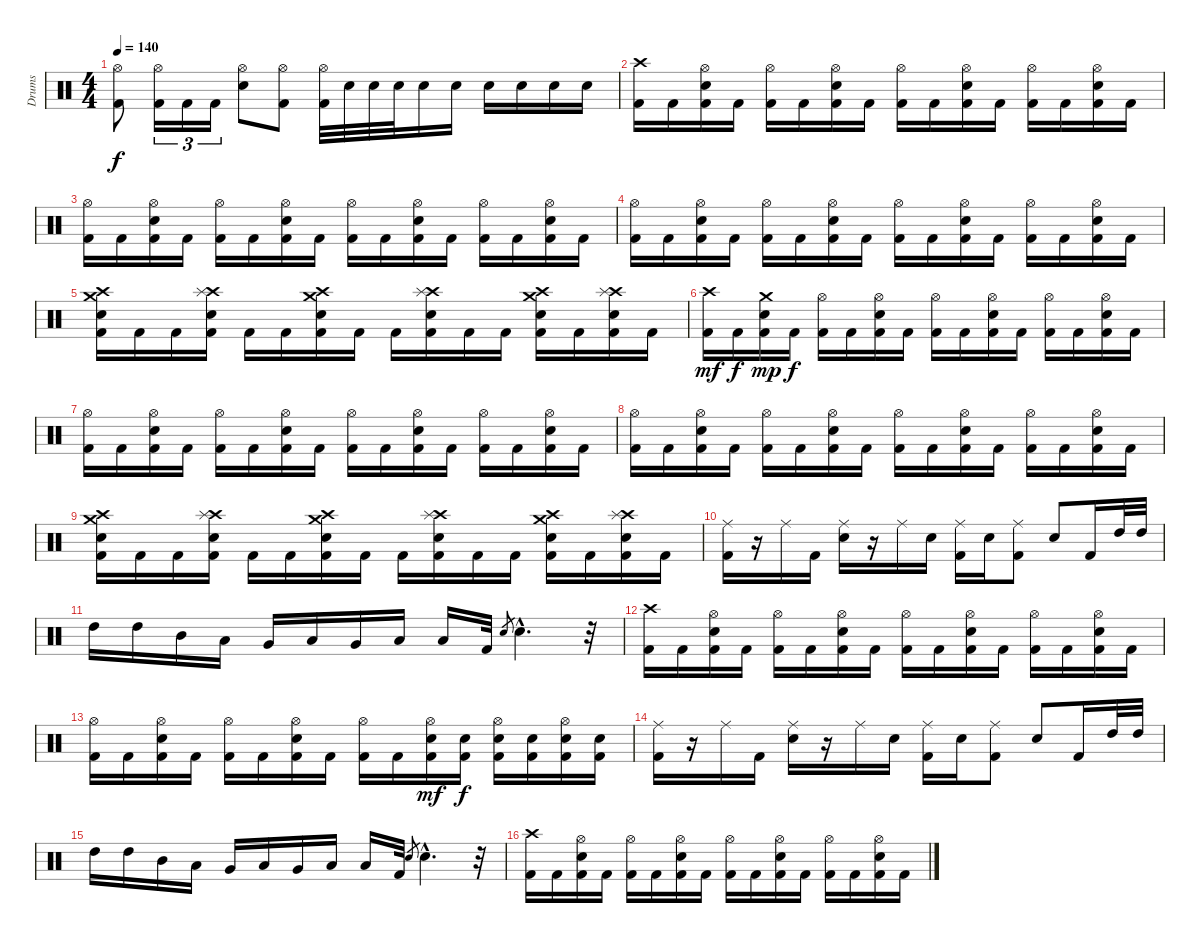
\track ("Drums" "Drums") {instrument percussion}
\staff {score}
\articulation defaults
\ts (4 4)
\tempo 140
\clef neutral
\ks c
("Hi-Hat (open)" "Kick (hit) 2").8{dy f} ("Hi-Hat (open)" "Kick (hit) 2").16{tu (3 2)} "Kick (hit) 2".16{tu (3 2)} "Kick (hit) 2".16{tu (3 2)} ("Hi-Hat (open)" "Electric Snare (hit)").8 ("Hi-Hat (open)" "Kick (hit) 2").8 ("Hi-Hat (open)" "Kick (hit) 2").32 "Electric Snare (hit)".32 "Electric Snare (hit)".32 "Electric Snare (hit)".32 "Electric Snare (hit)".16 "Electric Snare (hit)".16 "Electric Snare (hit)".16 "Electric Snare (hit)".16 "Electric Snare (hit)".16 "Electric Snare (hit)".16 |
("Crash high (hit)" "Kick (hit) 2").16 "Kick (hit) 2".16 ("Hi-Hat (open)" "Electric Snare (hit)" "Kick (hit) 2").16 "Kick (hit) 2".16 ("Hi-Hat (open)" "Kick (hit) 2").16 "Kick (hit) 2".16 ("Hi-Hat (open)" "Electric Snare (hit)" "Kick (hit) 2").16 "Kick (hit) 2".16 ("Hi-Hat (open)" "Kick (hit) 2").16 "Kick (hit) 2".16 ("Hi-Hat (open)" "Electric Snare (hit)" "Kick (hit) 2").16 "Kick (hit) 2".16 ("Hi-Hat (open)" "Kick (hit) 2").16 "Kick (hit) 2".16 ("Hi-Hat (open)" "Electric Snare (hit)" "Kick (hit) 2").16 "Kick (hit) 2".16 |
("Hi-Hat (open)" "Kick (hit) 2").16 "Kick (hit) 2".16 ("Hi-Hat (open)" "Electric Snare (hit)" "Kick (hit) 2").16 "Kick (hit) 2".16 ("Hi-Hat (open)" "Kick (hit) 2").16 "Kick (hit) 2".16 ("Hi-Hat (open)" "Electric Snare (hit)" "Kick (hit) 2").16 "Kick (hit) 2".16 ("Hi-Hat (open)" "Kick (hit) 2").16 "Kick (hit) 2".16 ("Hi-Hat (open)" "Electric Snare (hit)" "Kick (hit) 2").16 "Kick (hit) 2".16 ("Hi-Hat (open)" "Kick (hit) 2").16 "Kick (hit) 2".16 ("Hi-Hat (open)" "Electric Snare (hit)" "Kick (hit) 2").16 "Kick (hit) 2".16 |
("Hi-Hat (open)" "Kick (hit) 2").16 "Kick (hit) 2".16 ("Hi-Hat (open)" "Electric Snare (hit)" "Kick (hit) 2").16 "Kick (hit) 2".16 ("Hi-Hat (open)" "Kick (hit) 2").16 "Kick (hit) 2".16 ("Hi-Hat (open)" "Electric Snare (hit)" "Kick (hit) 2").16 "Kick (hit) 2".16 ("Hi-Hat (open)" "Kick (hit) 2").16 "Kick (hit) 2".16 ("Hi-Hat (open)" "Electric Snare (hit)" "Kick (hit) 2").16 "Kick (hit) 2".16 ("Hi-Hat (open)" "Kick (hit) 2").16 "Kick (hit) 2".16 ("Hi-Hat (open)" "Electric Snare (hit)" "Kick (hit) 2").16 "Kick (hit) 2".16 |
("Crash high (hit)" "Crash medium (hit)" "Electric Snare (hit)" "Kick (hit) 2").16 "Kick (hit) 2".16 "Kick (hit) 2".16 ("Crash high (hit)" "Splash (hit)" "Electric Snare (hit)" "Kick (hit) 2").16 "Kick (hit) 2".16 "Kick (hit) 2".16 ("Crash high (hit)" "Crash medium (hit)" "Electric Snare (hit)" "Kick (hit) 2").16 "Kick (hit) 2".16 "Kick (hit) 2".16 ("Crash high (hit)" "Splash (hit)" "Electric Snare (hit)" "Kick (hit) 2").16 "Kick (hit) 2".16 "Kick (hit) 2".16 ("Crash high (hit)" "Crash medium (hit)" "Electric Snare (hit)" "Kick (hit) 2").16 "Kick (hit) 2".16 ("Crash high (hit)" "Splash (hit)" "Electric Snare (hit)" "Kick (hit) 2").16 "Kick (hit) 2".16 |
("Crash high (hit)" "Kick (hit) 2").16{dy mf} "Kick (hit) 2".16{dy f} ("Crash medium (hit)" "Electric Snare (hit)" "Kick (hit) 2").16{dy mp} "Kick (hit) 2".16{dy f} ("Hi-Hat (open)" "Kick (hit) 2").16 "Kick (hit) 2".16 ("Hi-Hat (open)" "Electric Snare (hit)" "Kick (hit) 2").16 "Kick (hit) 2".16 ("Hi-Hat (open)" "Kick (hit) 2").16 "Kick (hit) 2".16 ("Hi-Hat (open)" "Electric Snare (hit)" "Kick (hit) 2").16 "Kick (hit) 2".16 ("Hi-Hat (open)" "Kick (hit) 2").16 "Kick (hit) 2".16 ("Hi-Hat (open)" "Electric Snare (hit)" "Kick (hit) 2").16 "Kick (hit) 2".16 |
("Hi-Hat (open)" "Kick (hit) 2").16 "Kick (hit) 2".16 ("Hi-Hat (open)" "Electric Snare (hit)" "Kick (hit) 2").16 "Kick (hit) 2".16 ("Hi-Hat (open)" "Kick (hit) 2").16 "Kick (hit) 2".16 ("Hi-Hat (open)" "Electric Snare (hit)" "Kick (hit) 2").16 "Kick (hit) 2".16 ("Hi-Hat (open)" "Kick (hit) 2").16 "Kick (hit) 2".16 ("Hi-Hat (open)" "Electric Snare (hit)" "Kick (hit) 2").16 "Kick (hit) 2".16 ("Hi-Hat (open)" "Kick (hit) 2").16 "Kick (hit) 2".16 ("Hi-Hat (open)" "Electric Snare (hit)" "Kick (hit) 2").16 "Kick (hit) 2".16 |
("Hi-Hat (open)" "Kick (hit) 2").16 "Kick (hit) 2".16 ("Hi-Hat (open)" "Electric Snare (hit)" "Kick (hit) 2").16 "Kick (hit) 2".16 ("Hi-Hat (open)" "Kick (hit) 2").16 "Kick (hit) 2".16 ("Hi-Hat (open)" "Electric Snare (hit)" "Kick (hit) 2").16 "Kick (hit) 2".16 ("Hi-Hat (open)" "Kick (hit) 2").16 "Kick (hit) 2".16 ("Hi-Hat (open)" "Electric Snare (hit)" "Kick (hit) 2").16 "Kick (hit) 2".16 ("Hi-Hat (open)" "Kick (hit) 2").16 "Kick (hit) 2".16 ("Hi-Hat (open)" "Electric Snare (hit)" "Kick (hit) 2").16 "Kick (hit) 2".16 |
("Crash high (hit)" "Crash medium (hit)" "Electric Snare (hit)" "Kick (hit) 2").16 "Kick (hit) 2".16 "Kick (hit) 2".16 ("Crash high (hit)" "Splash (hit)" "Electric Snare (hit)" "Kick (hit) 2").16 "Kick (hit) 2".16 "Kick (hit) 2".16 ("Crash high (hit)" "Crash medium (hit)" "Electric Snare (hit)" "Kick (hit) 2").16 "Kick (hit) 2".16 "Kick (hit) 2".16 ("Crash high (hit)" "Splash (hit)" "Electric Snare (hit)" "Kick (hit) 2").16 "Kick (hit) 2".16 "Kick (hit) 2".16 ("Crash high (hit)" "Crash medium (hit)" "Electric Snare (hit)" "Kick (hit) 2").16 "Kick (hit) 2".16 ("Crash high (hit)" "Splash (hit)" "Electric Snare (hit)" "Kick (hit) 2").16 "Kick (hit) 2".16 |
("Ride (middle)" "Kick (hit) 2").16 r.16 "Ride (middle)".16 "Kick (hit) 2".16 ("Ride (middle)" "Electric Snare (hit)").16 r.16 "Ride (middle)".16 "Electric Snare (hit)".16 ("Ride (middle)" "Kick (hit) 2").16 "Electric Snare (hit)".16 ("Ride (middle)" "Kick (hit) 2").8 "Electric Snare (hit)".8 "Kick (hit) 2".16 "High Tom (hit)".32 "High Tom (hit)".32 |
"High Tom (hit)".16 "High Tom (hit)".16 "Mid Tom (hit)".16 "Low Tom (hit)".16 "Very Low Tom (hit)".16 "Low Tom (hit)".16 "Very Low Tom (hit)".16 "Low Floor Tom (hit)".16 "Low Floor Tom (hit)".16 "Kick (hit) 2".32 "Electric Snare (hit)".8{gr} "Electric Snare (hit)"{hac}.4{d} r.32 |
("Crash high (hit)" "Kick (hit) 2").16 "Kick (hit) 2".16 ("Hi-Hat (open)" "Electric Snare (hit)" "Kick (hit) 2").16 "Kick (hit) 2".16 ("Hi-Hat (open)" "Kick (hit) 2").16 "Kick (hit) 2".16 ("Hi-Hat (open)" "Electric Snare (hit)" "Kick (hit) 2").16 "Kick (hit) 2".16 ("Hi-Hat (open)" "Kick (hit) 2").16 "Kick (hit) 2".16 ("Hi-Hat (open)" "Electric Snare (hit)" "Kick (hit) 2").16 "Kick (hit) 2".16 ("Hi-Hat (open)" "Kick (hit) 2").16 "Kick (hit) 2".16 ("Hi-Hat (open)" "Electric Snare (hit)" "Kick (hit) 2").16 "Kick (hit) 2".16 |
("Hi-Hat (open)" "Kick (hit) 2").16 "Kick (hit) 2".16 ("Hi-Hat (open)" "Electric Snare (hit)" "Kick (hit) 2").16 "Kick (hit) 2".16 ("Hi-Hat (open)" "Kick (hit) 2").16 "Kick (hit) 2".16 ("Hi-Hat (open)" "Electric Snare (hit)" "Kick (hit) 2").16 "Kick (hit) 2".16 ("Hi-Hat (open)" "Kick (hit) 2").16 "Kick (hit) 2".16 ("Hi-Hat (open)" "Electric Snare (hit)" "Kick (hit) 2").16{dy mf} ("Electric Snare (hit)" "Kick (hit) 2").16{dy f} ("Hi-Hat (open)" "Electric Snare (hit)" "Kick (hit) 2").16 ("Electric Snare (hit)" "Kick (hit) 2").16 ("Hi-Hat (open)" "Electric Snare (hit)" "Kick (hit) 2").16 ("Electric Snare (hit)" "Kick (hit) 2").16 |
("Ride (middle)" "Kick (hit) 2").16 r.16 "Ride (middle)".16 "Kick (hit) 2".16 ("Ride (middle)" "Electric Snare (hit)").16 r.16 "Ride (middle)".16 "Electric Snare (hit)".16 ("Ride (middle)" "Kick (hit) 2").16 "Electric Snare (hit)".16 ("Ride (middle)" "Kick (hit) 2").8 "Electric Snare (hit)".8 "Kick (hit) 2".16 "High Tom (hit)".32 "High Tom (hit)".32 |
"High Tom (hit)".16 "High Tom (hit)".16 "Mid Tom (hit)".16 "Low Tom (hit)".16 "Very Low Tom (hit)".16 "Low Tom (hit)".16 "Very Low Tom (hit)".16 "Low Floor Tom (hit)".16 "Low Floor Tom (hit)".16 "Kick (hit) 2".32 "Electric Snare (hit)".8{gr} "Electric Snare (hit)"{hac}.4{d} r.32 |
("Crash high (hit)" "Kick (hit) 2").16 "Kick (hit) 2".16 ("Hi-Hat (open)" "Electric Snare (hit)" "Kick (hit) 2").16 "Kick (hit) 2".16 ("Hi-Hat (open)" "Kick (hit) 2").16 "Kick (hit) 2".16 ("Hi-Hat (open)" "Electric Snare (hit)" "Kick (hit) 2").16 "Kick (hit) 2".16 ("Hi-Hat (open)" "Kick (hit) 2").16 "Kick (hit) 2".16 ("Hi-Hat (open)" "Electric Snare (hit)" "Kick (hit) 2").16 "Kick (hit) 2".16 ("Hi-Hat (open)" "Kick (hit) 2").16 "Kick (hit) 2".16 ("Hi-Hat (open)" "Electric Snare (hit)" "Kick (hit) 2").16 "Kick (hit) 2".16
